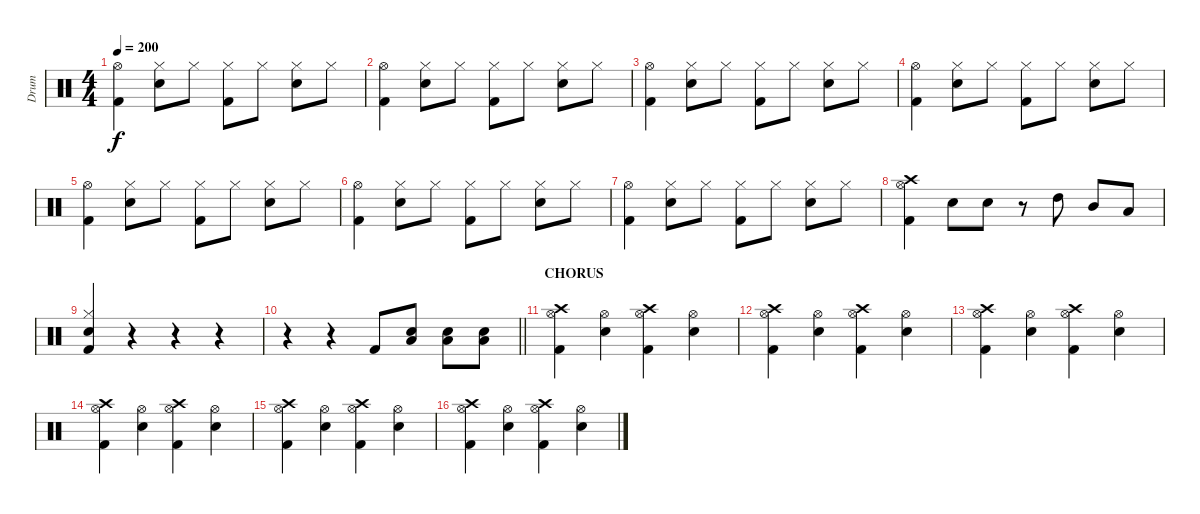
\track ("Drum" "Drum") {instrument percussion}
\staff {score}
\articulation defaults
\ts (4 4)
\tempo 200
\clef neutral
\ks c
("Hi-Hat (open)" "Kick (hit) 2").4{dy f} ("Hi-Hat (closed)" "Snare (hit) 2").8 "Hi-Hat (closed)".8 ("Hi-Hat (closed)" "Kick (hit) 2").8 "Hi-Hat (closed)".8 ("Hi-Hat (closed)" "Snare (hit) 2").8 "Hi-Hat (closed)".8 |
("Hi-Hat (open)" "Kick (hit) 2").4 ("Hi-Hat (closed)" "Snare (hit) 2").8 "Hi-Hat (closed)".8 ("Hi-Hat (closed)" "Kick (hit) 2").8 "Hi-Hat (closed)".8 ("Hi-Hat (closed)" "Snare (hit) 2").8 "Hi-Hat (closed)".8 |
("Hi-Hat (open)" "Kick (hit) 2").4 ("Hi-Hat (closed)" "Snare (hit) 2").8 "Hi-Hat (closed)".8 ("Hi-Hat (closed)" "Kick (hit) 2").8 "Hi-Hat (closed)".8 ("Hi-Hat (closed)" "Snare (hit) 2").8 "Hi-Hat (closed)".8 |
("Hi-Hat (open)" "Kick (hit) 2").4 ("Hi-Hat (closed)" "Snare (hit) 2").8 "Hi-Hat (closed)".8 ("Hi-Hat (closed)" "Kick (hit) 2").8 "Hi-Hat (closed)".8 ("Hi-Hat (closed)" "Snare (hit) 2").8 "Hi-Hat (closed)".8 |
("Hi-Hat (open)" "Kick (hit) 2").4 ("Hi-Hat (closed)" "Snare (hit) 2").8 "Hi-Hat (closed)".8 ("Hi-Hat (closed)" "Kick (hit) 2").8 "Hi-Hat (closed)".8 ("Hi-Hat (closed)" "Snare (hit) 2").8 "Hi-Hat (closed)".8 |
("Hi-Hat (open)" "Kick (hit) 2").4 ("Hi-Hat (closed)" "Snare (hit) 2").8 "Hi-Hat (closed)".8 ("Hi-Hat (closed)" "Kick (hit) 2").8 "Hi-Hat (closed)".8 ("Hi-Hat (closed)" "Snare (hit) 2").8 "Hi-Hat (closed)".8 |
("Hi-Hat (open)" "Kick (hit) 2").4 ("Hi-Hat (closed)" "Snare (hit) 2").8 "Hi-Hat (closed)".8 ("Hi-Hat (closed)" "Kick (hit) 2").8 "Hi-Hat (closed)".8 ("Hi-Hat (closed)" "Snare (hit) 2").8 "Hi-Hat (closed)".8 |
("Crash high (hit)" "Hi-Hat (open)" "Kick (hit) 2").4 "Snare (hit) 2".8 "Snare (hit) 2".8 r.8 "High Tom (hit)".8 "Mid Tom (hit)".8 "Low Tom (hit)".8 |
("Hi-Hat (closed)" "Snare (hit) 2" "Kick (hit) 2").4 r.4 r.4 r.4 |
\barLineRight lightlight
r.4 r.4 "Kick (hit) 2".8 ("Low Tom (hit)" "Snare (hit) 2").8 ("Low Tom (hit)" "Snare (hit) 2").8 ("Low Tom (hit)" "Snare (hit) 2").8 |
\section ("" "CHORUS")
("Crash high (hit)" "Hi-Hat (open)" "Kick (hit) 2").4 ("Hi-Hat (open)" "Snare (hit) 2").4 ("Crash high (hit)" "Hi-Hat (open)" "Kick (hit) 2").4 ("Hi-Hat (open)" "Snare (hit) 2").4 |
("Crash high (hit)" "Hi-Hat (open)" "Kick (hit) 2").4 ("Hi-Hat (open)" "Snare (hit) 2").4 ("Crash high (hit)" "Hi-Hat (open)" "Kick (hit) 2").4 ("Hi-Hat (open)" "Snare (hit) 2").4 |
("Crash high (hit)" "Hi-Hat (open)" "Kick (hit) 2").4 ("Hi-Hat (open)" "Snare (hit) 2").4 ("Crash high (hit)" "Hi-Hat (open)" "Kick (hit) 2").4 ("Hi-Hat (open)" "Snare (hit) 2").4 |
("Crash high (hit)" "Hi-Hat (open)" "Kick (hit) 2").4 ("Hi-Hat (open)" "Snare (hit) 2").4 ("Crash high (hit)" "Hi-Hat (open)" "Kick (hit) 2").4 ("Hi-Hat (open)" "Snare (hit) 2").4 |
("Crash high (hit)" "Hi-Hat (open)" "Kick (hit) 2").4 ("Hi-Hat (open)" "Snare (hit) 2").4 ("Crash high (hit)" "Hi-Hat (open)" "Kick (hit) 2").4 ("Hi-Hat (open)" "Snare (hit) 2").4 |
("Crash high (hit)" "Hi-Hat (open)" "Kick (hit) 2").4 ("Hi-Hat (open)" "Snare (hit) 2").4 ("Crash high (hit)" "Hi-Hat (open)" "Kick (hit) 2").4 ("Hi-Hat (open)" "Snare (hit) 2").4
